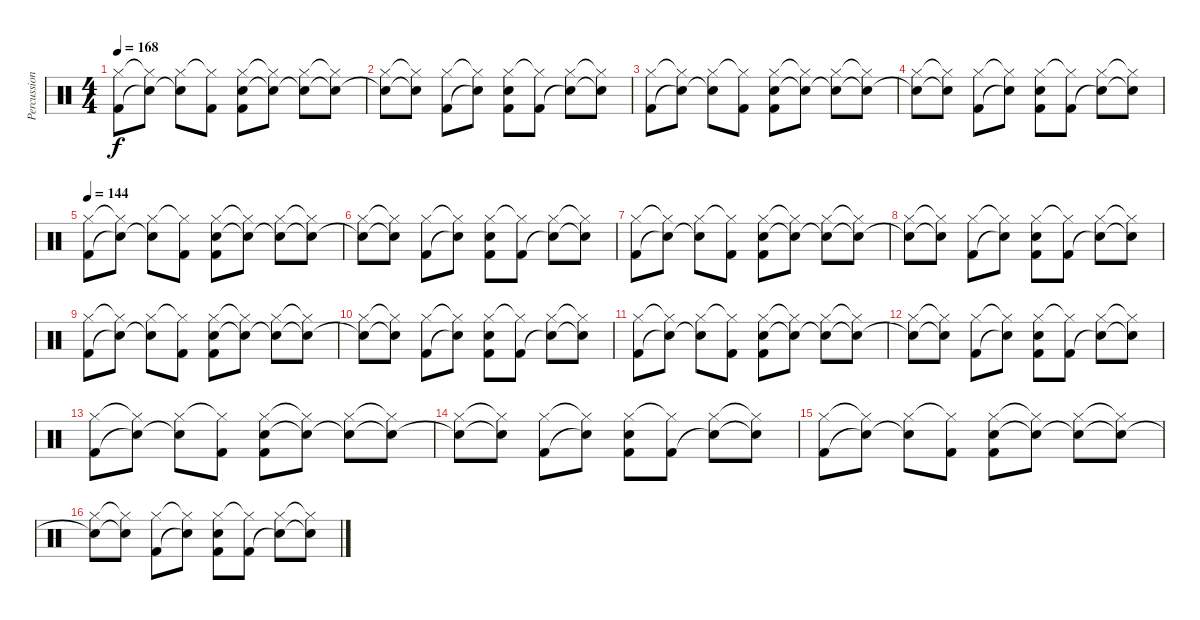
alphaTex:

\track ("Percussion" "Percussion") {instrument percussion}
\staff {score}
\articulation defaults
\ts (4 4)
\tempo 168
\clef neutral
\ks c
("Hi-Hat (closed)" "Kick (hit) 2").8{dy f} ("Hi-Hat (closed)"{t} "Snare (hit)"{t}).8 ("Hi-Hat (closed)" "Snare (hit)"{t}).8 ("Hi-Hat (closed)"{t} "Kick (hit) 2").8 ("Hi-Hat (closed)" "Electric Snare (hit)" "Kick (hit) 2").8 ("Hi-Hat (closed)"{t} "Snare (hit)"{t}).8 ("Hi-Hat (closed)" "Snare (hit)"{t}).8 ("Hi-Hat (closed)"{t} "Snare (hit)"{t}).8 |
("Hi-Hat (closed)" "Snare (hit)"{t}).8 ("Hi-Hat (closed)"{t} "Snare (hit)"{t}).8 ("Hi-Hat (closed)" "Kick (hit) 2").8 ("Hi-Hat (closed)"{t} "Snare (hit)"{t}).8 ("Hi-Hat (closed)" "Electric Snare (hit)" "Kick (hit) 2").8 ("Hi-Hat (closed)"{t} "Kick (hit) 2").8 ("Hi-Hat (closed)" "Snare (hit)"{t}).8 ("Hi-Hat (closed)"{t} "Snare (hit)"{t}).8 |
("Hi-Hat (closed)" "Kick (hit) 2").8 ("Hi-Hat (closed)"{t} "Snare (hit)"{t}).8 ("Hi-Hat (closed)" "Snare (hit)"{t}).8 ("Hi-Hat (closed)"{t} "Kick (hit) 2").8 ("Hi-Hat (closed)" "Electric Snare (hit)" "Kick (hit) 2").8 ("Hi-Hat (closed)"{t} "Snare (hit)"{t}).8 ("Hi-Hat (closed)" "Snare (hit)"{t}).8 ("Hi-Hat (closed)"{t} "Snare (hit)"{t}).8 |
("Hi-Hat (closed)" "Snare (hit)"{t}).8 ("Hi-Hat (closed)"{t} "Snare (hit)"{t}).8 ("Hi-Hat (closed)" "Kick (hit) 2").8 ("Hi-Hat (closed)"{t} "Snare (hit)"{t}).8 ("Hi-Hat (closed)" "Electric Snare (hit)" "Kick (hit) 2").8 ("Hi-Hat (closed)"{t} "Kick (hit) 2").8 ("Hi-Hat (closed)" "Snare (hit)"{t}).8 ("Hi-Hat (closed)"{t} "Snare (hit)"{t}).8 |
\tempo 144
("Hi-Hat (closed)" "Kick (hit) 2").8 ("Hi-Hat (closed)"{t} "Snare (hit)"{t}).8 ("Hi-Hat (closed)" "Snare (hit)"{t}).8 ("Hi-Hat (closed)"{t} "Kick (hit) 2").8 ("Hi-Hat (closed)" "Electric Snare (hit)" "Kick (hit) 2").8 ("Hi-Hat (closed)"{t} "Snare (hit)"{t}).8 ("Hi-Hat (closed)" "Snare (hit)"{t}).8 ("Hi-Hat (closed)"{t} "Snare (hit)"{t}).8 |
("Hi-Hat (closed)" "Snare (hit)"{t}).8 ("Hi-Hat (closed)"{t} "Snare (hit)"{t}).8 ("Hi-Hat (closed)" "Kick (hit) 2").8 ("Hi-Hat (closed)"{t} "Snare (hit)"{t}).8 ("Hi-Hat (closed)" "Electric Snare (hit)" "Kick (hit) 2").8 ("Hi-Hat (closed)"{t} "Kick (hit) 2").8 ("Hi-Hat (closed)" "Snare (hit)"{t}).8 ("Hi-Hat (closed)"{t} "Snare (hit)"{t}).8 |
("Hi-Hat (closed)" "Kick (hit) 2").8 ("Hi-Hat (closed)"{t} "Snare (hit)"{t}).8 ("Hi-Hat (closed)" "Snare (hit)"{t}).8 ("Hi-Hat (closed)"{t} "Kick (hit) 2").8 ("Hi-Hat (closed)" "Electric Snare (hit)" "Kick (hit) 2").8 ("Hi-Hat (closed)"{t} "Snare (hit)"{t}).8 ("Hi-Hat (closed)" "Snare (hit)"{t}).8 ("Hi-Hat (closed)"{t} "Snare (hit)"{t}).8 |
("Hi-Hat (closed)" "Snare (hit)"{t}).8 ("Hi-Hat (closed)"{t} "Snare (hit)"{t}).8 ("Hi-Hat (closed)" "Kick (hit) 2").8 ("Hi-Hat (closed)"{t} "Snare (hit)"{t}).8 ("Hi-Hat (closed)" "Electric Snare (hit)" "Kick (hit) 2").8 ("Hi-Hat (closed)"{t} "Kick (hit) 2").8 ("Hi-Hat (closed)" "Snare (hit)"{t}).8 ("Hi-Hat (closed)"{t} "Snare (hit)"{t}).8 |
("Hi-Hat (closed)" "Kick (hit) 2").8 ("Hi-Hat (closed)"{t} "Snare (hit)"{t}).8 ("Hi-Hat (closed)" "Snare (hit)"{t}).8 ("Hi-Hat (closed)"{t} "Kick (hit) 2").8 ("Hi-Hat (closed)" "Electric Snare (hit)" "Kick (hit) 2").8 ("Hi-Hat (closed)"{t} "Snare (hit)"{t}).8 ("Hi-Hat (closed)" "Snare (hit)"{t}).8 ("Hi-Hat (closed)"{t} "Snare (hit)"{t}).8 |
("Hi-Hat (closed)" "Snare (hit)"{t}).8 ("Hi-Hat (closed)"{t} "Snare (hit)"{t}).8 ("Hi-Hat (closed)" "Kick (hit) 2").8 ("Hi-Hat (closed)"{t} "Snare (hit)"{t}).8 ("Hi-Hat (closed)" "Electric Snare (hit)" "Kick (hit) 2").8 ("Hi-Hat (closed)"{t} "Kick (hit) 2").8 ("Hi-Hat (closed)" "Snare (hit)"{t}).8 ("Hi-Hat (closed)"{t} "Snare (hit)"{t}).8 |
("Hi-Hat (closed)" "Kick (hit) 2").8 ("Hi-Hat (closed)"{t} "Snare (hit)"{t}).8 ("Hi-Hat (closed)" "Snare (hit)"{t}).8 ("Hi-Hat (closed)"{t} "Kick (hit) 2").8 ("Hi-Hat (closed)" "Electric Snare (hit)" "Kick (hit) 2").8 ("Hi-Hat (closed)"{t} "Snare (hit)"{t}).8 ("Hi-Hat (closed)" "Snare (hit)"{t}).8 ("Hi-Hat (closed)"{t} "Snare (hit)"{t}).8 |
("Hi-Hat (closed)" "Snare (hit)"{t}).8 ("Hi-Hat (closed)"{t} "Snare (hit)"{t}).8 ("Hi-Hat (closed)" "Kick (hit) 2").8 ("Hi-Hat (closed)"{t} "Snare (hit)"{t}).8 ("Hi-Hat (closed)" "Electric Snare (hit)" "Kick (hit) 2").8 ("Hi-Hat (closed)"{t} "Kick (hit) 2").8 ("Hi-Hat (closed)" "Snare (hit)"{t}).8 ("Hi-Hat (closed)"{t} "Snare (hit)"{t}).8 |
("Hi-Hat (closed)" "Kick (hit) 2").8 ("Hi-Hat (closed)"{t} "Snare (hit)"{t}).8 ("Hi-Hat (closed)" "Snare (hit)"{t}).8 ("Hi-Hat (closed)"{t} "Kick (hit) 2").8 ("Hi-Hat (closed)" "Electric Snare (hit)" "Kick (hit) 2").8 ("Hi-Hat (closed)"{t} "Snare (hit)"{t}).8 ("Hi-Hat (closed)" "Snare (hit)"{t}).8 ("Hi-Hat (closed)"{t} "Snare (hit)"{t}).8 |
("Hi-Hat (closed)" "Snare (hit)"{t}).8 ("Hi-Hat (closed)"{t} "Snare (hit)"{t}).8 ("Hi-Hat (closed)" "Kick (hit) 2").8 ("Hi-Hat (closed)"{t} "Snare (hit)"{t}).8 ("Hi-Hat (closed)" "Electric Snare (hit)" "Kick (hit) 2").8 ("Hi-Hat (closed)"{t} "Kick (hit) 2").8 ("Hi-Hat (closed)" "Snare (hit)"{t}).8 ("Hi-Hat (closed)"{t} "Snare (hit)"{t}).8 |
("Hi-Hat (closed)" "Kick (hit) 2").8 ("Hi-Hat (closed)"{t} "Snare (hit)"{t}).8 ("Hi-Hat (closed)" "Snare (hit)"{t}).8 ("Hi-Hat (closed)"{t} "Kick (hit) 2").8 ("Hi-Hat (closed)" "Electric Snare (hit)" "Kick (hit) 2").8 ("Hi-Hat (closed)"{t} "Snare (hit)"{t}).8 ("Hi-Hat (closed)" "Snare (hit)"{t}).8 ("Hi-Hat (closed)"{t} "Snare (hit)"{t}).8 |
("Hi-Hat (closed)" "Snare (hit)"{t}).8 ("Hi-Hat (closed)"{t} "Snare (hit)"{t}).8 ("Hi-Hat (closed)" "Kick (hit) 2").8 ("Hi-Hat (closed)"{t} "Snare (hit)"{t}).8 ("Hi-Hat (closed)" "Electric Snare (hit)" "Kick (hit) 2").8 ("Hi-Hat (closed)"{t} "Kick (hit) 2").8 ("Hi-Hat (closed)" "Snare (hit)"{t}).8 ("Hi-Hat (closed)"{t} "Snare (hit)"{t}).8
